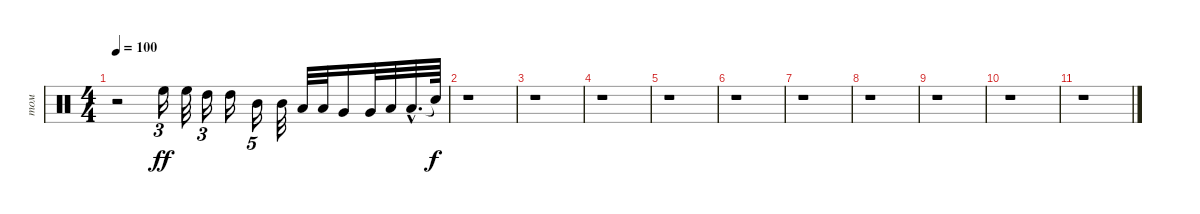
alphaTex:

\track ("том" "том") {instrument percussion}
\staff {score}
\articulation defaults
\ts (4 4)
\tempo 100
\clef neutral
\ks c
r.2{dy ff} "High Floor Tom (hit)".16{tu (3 2)} "High Floor Tom (hit)".32 "High Tom (hit)".16{tu (3 2)} "High Tom (hit)".16 "Mid Tom (hit)".16{tu (5 4)} "Mid Tom (hit)".32 "Low Tom (hit)".32 "Low Tom (hit)".32 "Very Low Tom (hit)".16 "Very Low Tom (hit)".32 "Low Floor Tom (hit)".32 "Low Floor Tom (hit)"{hac}.32{d} "Snare (hit)"{t}.64{dy f} |
r.1 |
r.1 |
r.1 |
r.1 |
r.1 |
r.1 |
r.1 |
r.1 |
r.1 |
r.1
